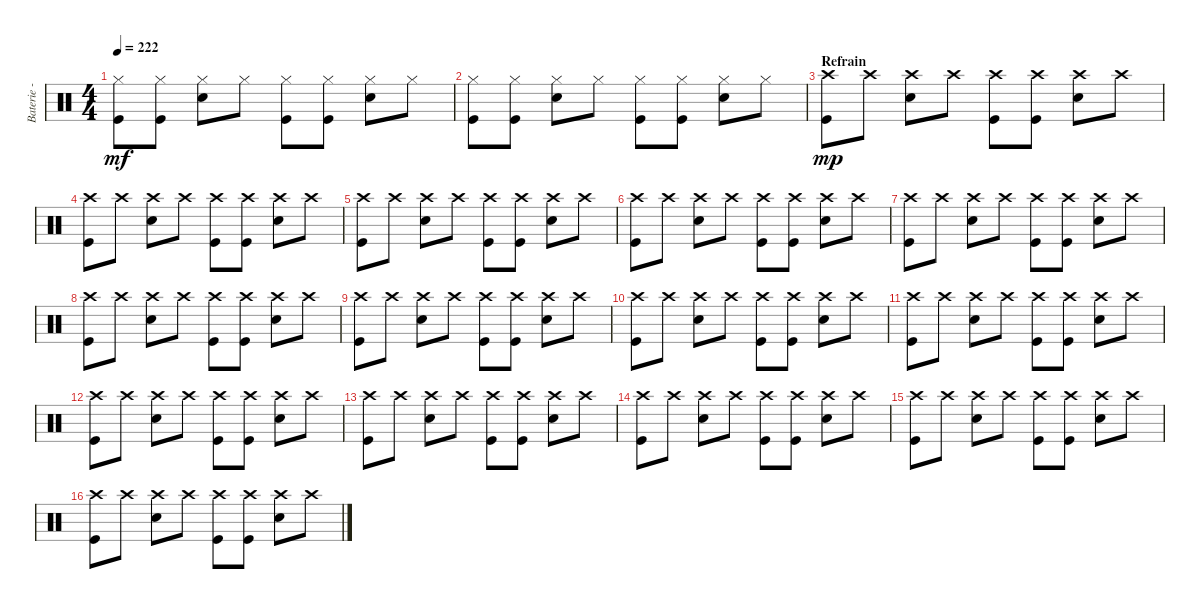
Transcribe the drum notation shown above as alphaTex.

\track ("Baterie - Guillaume" "Baterie - ") {instrument percussion}
\staff {score}
\articulation defaults
\ts (4 4)
\tempo 222
\clef neutral
\ks c
("Hi-Hat (closed)" "Kick (hit)").8{dy mf} ("Hi-Hat (closed)" "Kick (hit)").8 ("Hi-Hat (closed)" "Snare (hit) 2").8 "Hi-Hat (closed)".8 ("Hi-Hat (closed)" "Kick (hit)").8 ("Hi-Hat (closed)" "Kick (hit)").8 ("Hi-Hat (closed)" "Snare (hit) 2").8 "Hi-Hat (closed)".8 |
("Hi-Hat (closed)" "Kick (hit)").8 ("Hi-Hat (closed)" "Kick (hit)").8 ("Hi-Hat (closed)" "Snare (hit) 2").8 "Hi-Hat (closed)".8 ("Hi-Hat (closed)" "Kick (hit)").8 ("Hi-Hat (closed)" "Kick (hit)").8 ("Hi-Hat (closed)" "Snare (hit) 2").8 "Hi-Hat (closed)".8 |
\section ("" "Refrain")
("Crash high (hit)" "Kick (hit)").8{dy mp} "Crash high (hit)".8 ("Crash high (hit)" "Snare (hit) 2").8 "Crash high (hit)".8 ("Crash high (hit)" "Kick (hit)").8 ("Crash high (hit)" "Kick (hit)").8 ("Crash high (hit)" "Snare (hit) 2").8 "Crash high (hit)".8 |
("Crash high (hit)" "Kick (hit)").8 "Crash high (hit)".8 ("Crash high (hit)" "Snare (hit) 2").8 "Crash high (hit)".8 ("Crash high (hit)" "Kick (hit)").8 ("Crash high (hit)" "Kick (hit)").8 ("Crash high (hit)" "Snare (hit) 2").8 "Crash high (hit)".8 |
("Crash high (hit)" "Kick (hit)").8 "Crash high (hit)".8 ("Crash high (hit)" "Snare (hit) 2").8 "Crash high (hit)".8 ("Crash high (hit)" "Kick (hit)").8 ("Crash high (hit)" "Kick (hit)").8 ("Crash high (hit)" "Snare (hit) 2").8 "Crash high (hit)".8 |
("Crash high (hit)" "Kick (hit)").8 "Crash high (hit)".8 ("Crash high (hit)" "Snare (hit) 2").8 "Crash high (hit)".8 ("Crash high (hit)" "Kick (hit)").8 ("Crash high (hit)" "Kick (hit)").8 ("Crash high (hit)" "Snare (hit) 2").8 "Crash high (hit)".8 |
("Crash high (hit)" "Kick (hit)").8 "Crash high (hit)".8 ("Crash high (hit)" "Snare (hit) 2").8 "Crash high (hit)".8 ("Crash high (hit)" "Kick (hit)").8 ("Crash high (hit)" "Kick (hit)").8 ("Crash high (hit)" "Snare (hit) 2").8 "Crash high (hit)".8 |
("Crash high (hit)" "Kick (hit)").8 "Crash high (hit)".8 ("Crash high (hit)" "Snare (hit) 2").8 "Crash high (hit)".8 ("Crash high (hit)" "Kick (hit)").8 ("Crash high (hit)" "Kick (hit)").8 ("Crash high (hit)" "Snare (hit) 2").8 "Crash high (hit)".8 |
("Crash high (hit)" "Kick (hit)").8 "Crash high (hit)".8 ("Crash high (hit)" "Snare (hit) 2").8 "Crash high (hit)".8 ("Crash high (hit)" "Kick (hit)").8 ("Crash high (hit)" "Kick (hit)").8 ("Crash high (hit)" "Snare (hit) 2").8 "Crash high (hit)".8 |
("Crash high (hit)" "Kick (hit)").8 "Crash high (hit)".8 ("Crash high (hit)" "Snare (hit) 2").8 "Crash high (hit)".8 ("Crash high (hit)" "Kick (hit)").8 ("Crash high (hit)" "Kick (hit)").8 ("Crash high (hit)" "Snare (hit) 2").8 "Crash high (hit)".8 |
("Crash high (hit)" "Kick (hit)").8 "Crash high (hit)".8 ("Crash high (hit)" "Snare (hit) 2").8 "Crash high (hit)".8 ("Crash high (hit)" "Kick (hit)").8 ("Crash high (hit)" "Kick (hit)").8 ("Crash high (hit)" "Snare (hit) 2").8 "Crash high (hit)".8 |
("Crash high (hit)" "Kick (hit)").8 "Crash high (hit)".8 ("Crash high (hit)" "Snare (hit) 2").8 "Crash high (hit)".8 ("Crash high (hit)" "Kick (hit)").8 ("Crash high (hit)" "Kick (hit)").8 ("Crash high (hit)" "Snare (hit) 2").8 "Crash high (hit)".8 |
("Crash high (hit)" "Kick (hit)").8 "Crash high (hit)".8 ("Crash high (hit)" "Snare (hit) 2").8 "Crash high (hit)".8 ("Crash high (hit)" "Kick (hit)").8 ("Crash high (hit)" "Kick (hit)").8 ("Crash high (hit)" "Snare (hit) 2").8 "Crash high (hit)".8 |
("Crash high (hit)" "Kick (hit)").8 "Crash high (hit)".8 ("Crash high (hit)" "Snare (hit) 2").8 "Crash high (hit)".8 ("Crash high (hit)" "Kick (hit)").8 ("Crash high (hit)" "Kick (hit)").8 ("Crash high (hit)" "Snare (hit) 2").8 "Crash high (hit)".8 |
("Crash high (hit)" "Kick (hit)").8 "Crash high (hit)".8 ("Crash high (hit)" "Snare (hit) 2").8 "Crash high (hit)".8 ("Crash high (hit)" "Kick (hit)").8 ("Crash high (hit)" "Kick (hit)").8 ("Crash high (hit)" "Snare (hit) 2").8 "Crash high (hit)".8 |
("Crash high (hit)" "Kick (hit)").8 "Crash high (hit)".8 ("Crash high (hit)" "Snare (hit) 2").8 "Crash high (hit)".8 ("Crash high (hit)" "Kick (hit)").8 ("Crash high (hit)" "Kick (hit)").8 ("Crash high (hit)" "Snare (hit) 2").8 "Crash high (hit)".8
